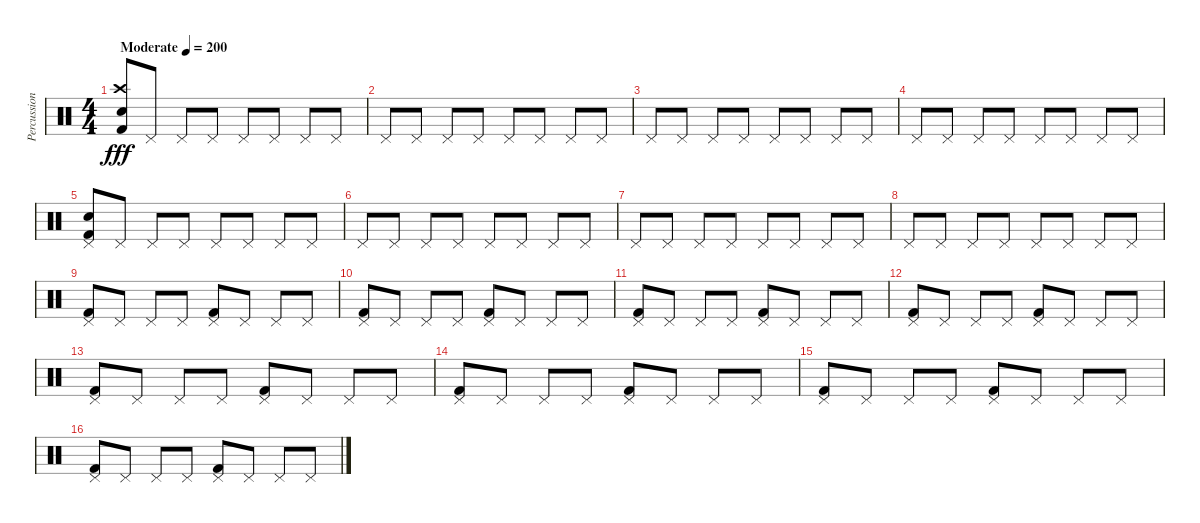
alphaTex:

\track ("Percussion" "Percussion") {instrument percussion}
\staff {score}
\articulation defaults
\ts (4 4)
\tempo (200 "Moderate")
\clef neutral
\ks c
("Electric Snare (hit)" "Crash high (hit)" "Kick (hit) 2").8{dy fff} "Pedal Hi-Hat (hit)".8 "Pedal Hi-Hat (hit)".8 "Pedal Hi-Hat (hit)".8 "Pedal Hi-Hat (hit)".8 "Pedal Hi-Hat (hit)".8 "Pedal Hi-Hat (hit)".8 "Pedal Hi-Hat (hit)".8 |
"Pedal Hi-Hat (hit)".8 "Pedal Hi-Hat (hit)".8 "Pedal Hi-Hat (hit)".8 "Pedal Hi-Hat (hit)".8 "Pedal Hi-Hat (hit)".8 "Pedal Hi-Hat (hit)".8 "Pedal Hi-Hat (hit)".8 "Pedal Hi-Hat (hit)".8 |
"Pedal Hi-Hat (hit)".8 "Pedal Hi-Hat (hit)".8 "Pedal Hi-Hat (hit)".8 "Pedal Hi-Hat (hit)".8 "Pedal Hi-Hat (hit)".8 "Pedal Hi-Hat (hit)".8 "Pedal Hi-Hat (hit)".8 "Pedal Hi-Hat (hit)".8 |
"Pedal Hi-Hat (hit)".8 "Pedal Hi-Hat (hit)".8 "Pedal Hi-Hat (hit)".8 "Pedal Hi-Hat (hit)".8 "Pedal Hi-Hat (hit)".8 "Pedal Hi-Hat (hit)".8 "Pedal Hi-Hat (hit)".8 "Pedal Hi-Hat (hit)".8 |
("Electric Snare (hit)" "Kick (hit) 2" "Pedal Hi-Hat (hit)").8 "Pedal Hi-Hat (hit)".8 "Pedal Hi-Hat (hit)".8 "Pedal Hi-Hat (hit)".8 "Pedal Hi-Hat (hit)".8 "Pedal Hi-Hat (hit)".8 "Pedal Hi-Hat (hit)".8 "Pedal Hi-Hat (hit)".8 |
"Pedal Hi-Hat (hit)".8 "Pedal Hi-Hat (hit)".8 "Pedal Hi-Hat (hit)".8 "Pedal Hi-Hat (hit)".8 "Pedal Hi-Hat (hit)".8 "Pedal Hi-Hat (hit)".8 "Pedal Hi-Hat (hit)".8 "Pedal Hi-Hat (hit)".8 |
"Pedal Hi-Hat (hit)".8 "Pedal Hi-Hat (hit)".8 "Pedal Hi-Hat (hit)".8 "Pedal Hi-Hat (hit)".8 "Pedal Hi-Hat (hit)".8 "Pedal Hi-Hat (hit)".8 "Pedal Hi-Hat (hit)".8 "Pedal Hi-Hat (hit)".8 |
"Pedal Hi-Hat (hit)".8 "Pedal Hi-Hat (hit)".8 "Pedal Hi-Hat (hit)".8 "Pedal Hi-Hat (hit)".8 "Pedal Hi-Hat (hit)".8 "Pedal Hi-Hat (hit)".8 "Pedal Hi-Hat (hit)".8 "Pedal Hi-Hat (hit)".8 |
("Kick (hit) 2" "Pedal Hi-Hat (hit)").8 "Pedal Hi-Hat (hit)".8 "Pedal Hi-Hat (hit)".8 "Pedal Hi-Hat (hit)".8 ("Kick (hit) 2" "Pedal Hi-Hat (hit)").8 "Pedal Hi-Hat (hit)".8 "Pedal Hi-Hat (hit)".8 "Pedal Hi-Hat (hit)".8 |
("Kick (hit) 2" "Pedal Hi-Hat (hit)").8 "Pedal Hi-Hat (hit)".8 "Pedal Hi-Hat (hit)".8 "Pedal Hi-Hat (hit)".8 ("Kick (hit) 2" "Pedal Hi-Hat (hit)").8 "Pedal Hi-Hat (hit)".8 "Pedal Hi-Hat (hit)".8 "Pedal Hi-Hat (hit)".8 |
("Kick (hit) 2" "Pedal Hi-Hat (hit)").8 "Pedal Hi-Hat (hit)".8 "Pedal Hi-Hat (hit)".8 "Pedal Hi-Hat (hit)".8 ("Kick (hit) 2" "Pedal Hi-Hat (hit)").8 "Pedal Hi-Hat (hit)".8 "Pedal Hi-Hat (hit)".8 "Pedal Hi-Hat (hit)".8 |
("Kick (hit) 2" "Pedal Hi-Hat (hit)").8 "Pedal Hi-Hat (hit)".8 "Pedal Hi-Hat (hit)".8 "Pedal Hi-Hat (hit)".8 ("Kick (hit) 2" "Pedal Hi-Hat (hit)").8 "Pedal Hi-Hat (hit)".8 "Pedal Hi-Hat (hit)".8 "Pedal Hi-Hat (hit)".8 |
("Kick (hit) 2" "Pedal Hi-Hat (hit)").8 "Pedal Hi-Hat (hit)".8 "Pedal Hi-Hat (hit)".8 "Pedal Hi-Hat (hit)".8 ("Kick (hit) 2" "Pedal Hi-Hat (hit)").8 "Pedal Hi-Hat (hit)".8 "Pedal Hi-Hat (hit)".8 "Pedal Hi-Hat (hit)".8 |
("Kick (hit) 2" "Pedal Hi-Hat (hit)").8 "Pedal Hi-Hat (hit)".8 "Pedal Hi-Hat (hit)".8 "Pedal Hi-Hat (hit)".8 ("Kick (hit) 2" "Pedal Hi-Hat (hit)").8 "Pedal Hi-Hat (hit)".8 "Pedal Hi-Hat (hit)".8 "Pedal Hi-Hat (hit)".8 |
("Kick (hit) 2" "Pedal Hi-Hat (hit)").8 "Pedal Hi-Hat (hit)".8 "Pedal Hi-Hat (hit)".8 "Pedal Hi-Hat (hit)".8 ("Kick (hit) 2" "Pedal Hi-Hat (hit)").8 "Pedal Hi-Hat (hit)".8 "Pedal Hi-Hat (hit)".8 "Pedal Hi-Hat (hit)".8 |
("Kick (hit) 2" "Pedal Hi-Hat (hit)").8 "Pedal Hi-Hat (hit)".8 "Pedal Hi-Hat (hit)".8 "Pedal Hi-Hat (hit)".8 ("Kick (hit) 2" "Pedal Hi-Hat (hit)").8 "Pedal Hi-Hat (hit)".8 "Pedal Hi-Hat (hit)".8 "Pedal Hi-Hat (hit)".8
